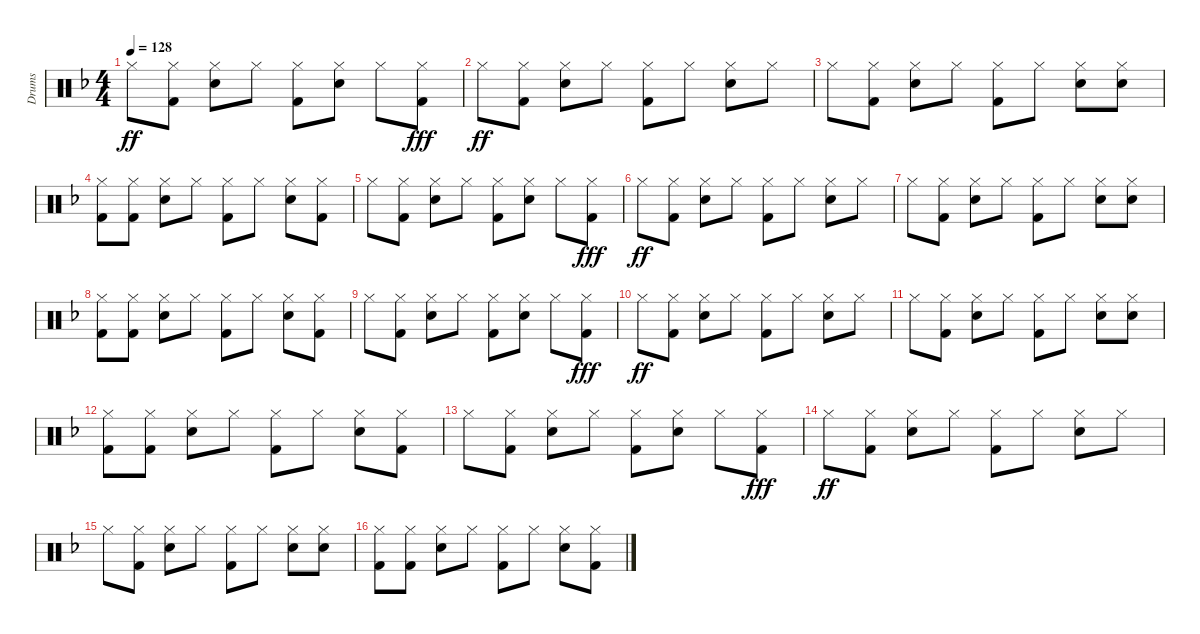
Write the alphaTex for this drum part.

\track ("Drums" "Drums") {instrument percussion}
\staff {score}
\articulation defaults
\ts (4 4)
\tempo 128
\clef neutral
\ks f "Hi-Hat (closed)".8{dy ff}
("Hi-Hat (closed)" "Kick (hit) 2").8 ("Hi-Hat (closed)" "Snare (hit) 2").8 "Hi-Hat (closed)".8 ("Hi-Hat (closed)" "Kick (hit) 2").8 ("Hi-Hat (closed)" "Snare (hit) 2").8 "Hi-Hat (closed)".8 ("Hi-Hat (closed)" "Kick (hit) 2").8{dy fff} |
"Hi-Hat (closed)".8{dy ff} ("Hi-Hat (closed)" "Kick (hit) 2").8 ("Hi-Hat (closed)" "Snare (hit) 2").8 "Hi-Hat (closed)".8 ("Hi-Hat (closed)" "Kick (hit) 2").8 "Hi-Hat (closed)".8 ("Hi-Hat (closed)" "Snare (hit) 2").8 "Hi-Hat (closed)".8 |
"Hi-Hat (closed)".8 ("Hi-Hat (closed)" "Kick (hit) 2").8 ("Hi-Hat (closed)" "Snare (hit) 2").8 "Hi-Hat (closed)".8 ("Hi-Hat (closed)" "Kick (hit) 2").8 "Hi-Hat (closed)".8 ("Hi-Hat (closed)" "Snare (hit) 2").8 ("Hi-Hat (closed)" "Snare (hit) 2").8 |
("Hi-Hat (closed)" "Kick (hit) 2").8 ("Hi-Hat (closed)" "Kick (hit) 2").8 ("Hi-Hat (closed)" "Snare (hit) 2").8 "Hi-Hat (closed)".8 ("Hi-Hat (closed)" "Kick (hit) 2").8 "Hi-Hat (closed)".8 ("Hi-Hat (closed)" "Snare (hit) 2").8 ("Hi-Hat (closed)" "Kick (hit) 2").8 |
"Hi-Hat (closed)".8 ("Hi-Hat (closed)" "Kick (hit) 2").8 ("Hi-Hat (closed)" "Snare (hit) 2").8 "Hi-Hat (closed)".8 ("Hi-Hat (closed)" "Kick (hit) 2").8 ("Hi-Hat (closed)" "Snare (hit) 2").8 "Hi-Hat (closed)".8 ("Hi-Hat (closed)" "Kick (hit) 2").8{dy fff} |
"Hi-Hat (closed)".8{dy ff} ("Hi-Hat (closed)" "Kick (hit) 2").8 ("Hi-Hat (closed)" "Snare (hit) 2").8 "Hi-Hat (closed)".8 ("Hi-Hat (closed)" "Kick (hit) 2").8 "Hi-Hat (closed)".8 ("Hi-Hat (closed)" "Snare (hit) 2").8 "Hi-Hat (closed)".8 |
"Hi-Hat (closed)".8 ("Hi-Hat (closed)" "Kick (hit) 2").8 ("Hi-Hat (closed)" "Snare (hit) 2").8 "Hi-Hat (closed)".8 ("Hi-Hat (closed)" "Kick (hit) 2").8 "Hi-Hat (closed)".8 ("Hi-Hat (closed)" "Snare (hit) 2").8 ("Hi-Hat (closed)" "Snare (hit) 2").8 |
("Hi-Hat (closed)" "Kick (hit) 2").8 ("Hi-Hat (closed)" "Kick (hit) 2").8 ("Hi-Hat (closed)" "Snare (hit) 2").8 "Hi-Hat (closed)".8 ("Hi-Hat (closed)" "Kick (hit) 2").8 "Hi-Hat (closed)".8 ("Hi-Hat (closed)" "Snare (hit) 2").8 ("Hi-Hat (closed)" "Kick (hit) 2").8 |
"Hi-Hat (closed)".8 ("Hi-Hat (closed)" "Kick (hit) 2").8 ("Hi-Hat (closed)" "Snare (hit) 2").8 "Hi-Hat (closed)".8 ("Hi-Hat (closed)" "Kick (hit) 2").8 ("Hi-Hat (closed)" "Snare (hit) 2").8 "Hi-Hat (closed)".8 ("Hi-Hat (closed)" "Kick (hit) 2").8{dy fff} |
"Hi-Hat (closed)".8{dy ff} ("Hi-Hat (closed)" "Kick (hit) 2").8 ("Hi-Hat (closed)" "Snare (hit) 2").8 "Hi-Hat (closed)".8 ("Hi-Hat (closed)" "Kick (hit) 2").8 "Hi-Hat (closed)".8 ("Hi-Hat (closed)" "Snare (hit) 2").8 "Hi-Hat (closed)".8 |
"Hi-Hat (closed)".8 ("Hi-Hat (closed)" "Kick (hit) 2").8 ("Hi-Hat (closed)" "Snare (hit) 2").8 "Hi-Hat (closed)".8 ("Hi-Hat (closed)" "Kick (hit) 2").8 "Hi-Hat (closed)".8 ("Hi-Hat (closed)" "Snare (hit) 2").8 ("Hi-Hat (closed)" "Snare (hit) 2").8 |
("Hi-Hat (closed)" "Kick (hit) 2").8 ("Hi-Hat (closed)" "Kick (hit) 2").8 ("Hi-Hat (closed)" "Snare (hit) 2").8 "Hi-Hat (closed)".8 ("Hi-Hat (closed)" "Kick (hit) 2").8 "Hi-Hat (closed)".8 ("Hi-Hat (closed)" "Snare (hit) 2").8 ("Hi-Hat (closed)" "Kick (hit) 2").8 |
"Hi-Hat (closed)".8 ("Hi-Hat (closed)" "Kick (hit) 2").8 ("Hi-Hat (closed)" "Snare (hit) 2").8 "Hi-Hat (closed)".8 ("Hi-Hat (closed)" "Kick (hit) 2").8 ("Hi-Hat (closed)" "Snare (hit) 2").8 "Hi-Hat (closed)".8 ("Hi-Hat (closed)" "Kick (hit) 2").8{dy fff} |
"Hi-Hat (closed)".8{dy ff} ("Hi-Hat (closed)" "Kick (hit) 2").8 ("Hi-Hat (closed)" "Snare (hit) 2").8 "Hi-Hat (closed)".8 ("Hi-Hat (closed)" "Kick (hit) 2").8 "Hi-Hat (closed)".8 ("Hi-Hat (closed)" "Snare (hit) 2").8 "Hi-Hat (closed)".8 |
"Hi-Hat (closed)".8 ("Hi-Hat (closed)" "Kick (hit) 2").8 ("Hi-Hat (closed)" "Snare (hit) 2").8 "Hi-Hat (closed)".8 ("Hi-Hat (closed)" "Kick (hit) 2").8 "Hi-Hat (closed)".8 ("Hi-Hat (closed)" "Snare (hit) 2").8 ("Hi-Hat (closed)" "Snare (hit) 2").8 |
("Hi-Hat (closed)" "Kick (hit) 2").8 ("Hi-Hat (closed)" "Kick (hit) 2").8 ("Hi-Hat (closed)" "Snare (hit) 2").8 "Hi-Hat (closed)".8 ("Hi-Hat (closed)" "Kick (hit) 2").8 "Hi-Hat (closed)".8 ("Hi-Hat (closed)" "Snare (hit) 2").8 ("Hi-Hat (closed)" "Kick (hit) 2").8
